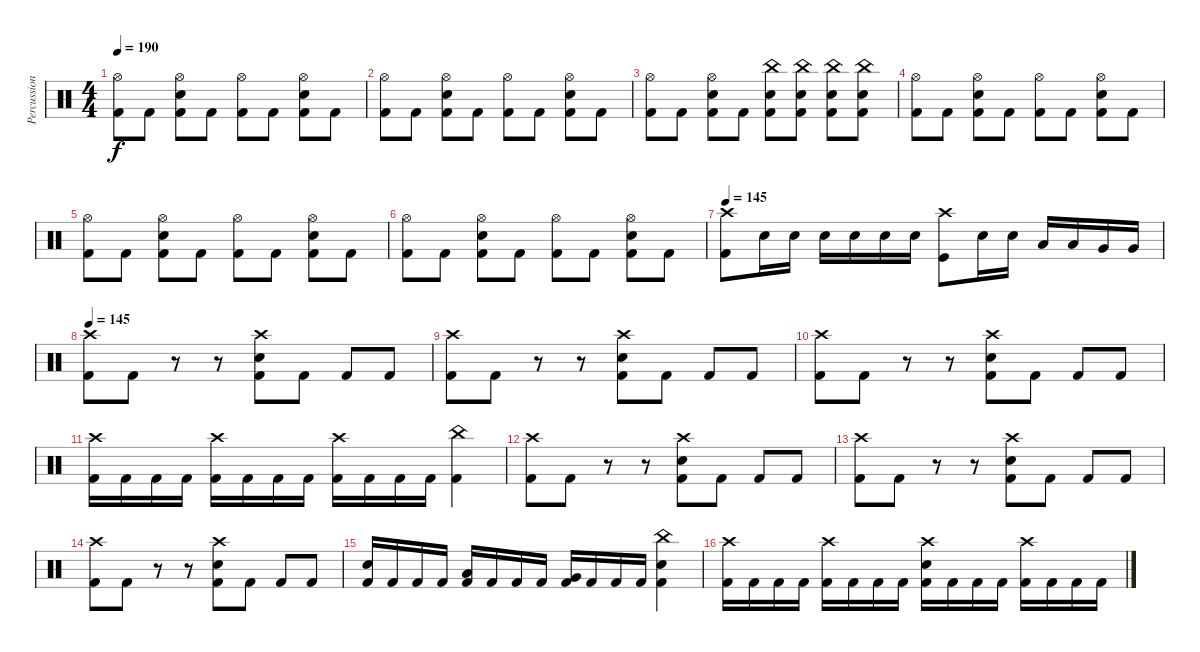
\track ("Percussion" "Percussion") {instrument percussion}
\staff {score}
\articulation defaults
\ts (4 4)
\tempo 190
\clef neutral
\ks c
("Hi-Hat (open)" "Kick (hit) 2").8{dy f} "Kick (hit) 2".8 ("Hi-Hat (open)" "Electric Snare (hit)" "Kick (hit) 2").8 "Kick (hit) 2".8 ("Hi-Hat (open)" "Kick (hit) 2").8 "Kick (hit) 2".8 ("Hi-Hat (open)" "Electric Snare (hit)" "Kick (hit) 2").8 "Kick (hit) 2".8 |
("Hi-Hat (open)" "Kick (hit) 2").8 "Kick (hit) 2".8 ("Hi-Hat (open)" "Electric Snare (hit)" "Kick (hit) 2").8 "Kick (hit) 2".8 ("Hi-Hat (open)" "Kick (hit) 2").8 "Kick (hit) 2".8 ("Hi-Hat (open)" "Electric Snare (hit)" "Kick (hit) 2").8 "Kick (hit) 2".8 |
("Hi-Hat (open)" "Kick (hit) 2").8 "Kick (hit) 2".8 ("Hi-Hat (open)" "Electric Snare (hit)" "Kick (hit) 2").8 "Kick (hit) 2".8 ("China (hit)" "Electric Snare (hit)" "Kick (hit) 2").8 ("China (hit)" "Electric Snare (hit)" "Kick (hit) 2").8 ("China (hit)" "Electric Snare (hit)" "Kick (hit) 2").8 ("China (hit)" "Electric Snare (hit)" "Kick (hit) 2").8 |
("Hi-Hat (open)" "Kick (hit) 2").8 "Kick (hit) 2".8 ("Hi-Hat (open)" "Electric Snare (hit)" "Kick (hit) 2").8 "Kick (hit) 2".8 ("Hi-Hat (open)" "Kick (hit) 2").8 "Kick (hit) 2".8 ("Hi-Hat (open)" "Electric Snare (hit)" "Kick (hit) 2").8 "Kick (hit) 2".8 |
("Hi-Hat (open)" "Kick (hit) 2").8 "Kick (hit) 2".8 ("Hi-Hat (open)" "Electric Snare (hit)" "Kick (hit) 2").8 "Kick (hit) 2".8 ("Hi-Hat (open)" "Kick (hit) 2").8 "Kick (hit) 2".8 ("Hi-Hat (open)" "Electric Snare (hit)" "Kick (hit) 2").8 "Kick (hit) 2".8 |
("Hi-Hat (open)" "Kick (hit) 2").8 "Kick (hit) 2".8 ("Hi-Hat (open)" "Electric Snare (hit)" "Kick (hit) 2").8 "Kick (hit) 2".8 ("Hi-Hat (open)" "Kick (hit) 2").8 "Kick (hit) 2".8 ("Hi-Hat (open)" "Electric Snare (hit)" "Kick (hit) 2").8 "Kick (hit) 2".8 |
\tempo 145
("Crash high (hit)" "Kick (hit) 2").8{volume 13} "Electric Snare (hit)".16 "Electric Snare (hit)".16 "Electric Snare (hit)".16 "Electric Snare (hit)".16 "Electric Snare (hit)".16 "Electric Snare (hit)".16 ("Crash high (hit)" "Kick (hit)").8 "Electric Snare (hit)".16 "Electric Snare (hit)".16 "Low Tom (hit)".16 "Low Tom (hit)".16 "Very Low Tom (hit)".16 "Very Low Tom (hit)".16 |
\tempo 145
("Crash high (hit)" "Kick (hit) 2").8 "Kick (hit) 2".8 r.8 r.8 ("Crash high (hit)" "Electric Snare (hit)" "Kick (hit) 2").8 "Kick (hit) 2".8 "Kick (hit) 2".8 "Kick (hit) 2".8 |
("Crash high (hit)" "Kick (hit) 2").8 "Kick (hit) 2".8 r.8 r.8 ("Crash high (hit)" "Electric Snare (hit)" "Kick (hit) 2").8 "Kick (hit) 2".8 "Kick (hit) 2".8 "Kick (hit) 2".8 |
("Crash high (hit)" "Kick (hit) 2").8 "Kick (hit) 2".8 r.8 r.8 ("Crash high (hit)" "Electric Snare (hit)" "Kick (hit) 2").8 "Kick (hit) 2".8 "Kick (hit) 2".8 "Kick (hit) 2".8 |
("Crash high (hit)" "Kick (hit) 2").16 "Kick (hit) 2".16 "Kick (hit) 2".16 "Kick (hit) 2".16 ("Crash high (hit)" "Kick (hit) 2").16 "Kick (hit) 2".16 "Kick (hit) 2".16 "Kick (hit) 2".16 ("Crash high (hit)" "Kick (hit) 2").16 "Kick (hit) 2".16 "Kick (hit) 2".16 "Kick (hit) 2".16 ("China (hit)" "Kick (hit) 2").4 |
("Crash high (hit)" "Kick (hit) 2").8 "Kick (hit) 2".8 r.8 r.8 ("Crash high (hit)" "Electric Snare (hit)" "Kick (hit) 2").8 "Kick (hit) 2".8 "Kick (hit) 2".8 "Kick (hit) 2".8 |
("Crash high (hit)" "Kick (hit) 2").8 "Kick (hit) 2".8 r.8 r.8 ("Crash high (hit)" "Electric Snare (hit)" "Kick (hit) 2").8 "Kick (hit) 2".8 "Kick (hit) 2".8 "Kick (hit) 2".8 |
("Crash high (hit)" "Kick (hit) 2").8 "Kick (hit) 2".8 r.8 r.8 ("Crash high (hit)" "Electric Snare (hit)" "Kick (hit) 2").8 "Kick (hit) 2".8 "Kick (hit) 2".8 "Kick (hit) 2".8 |
("Electric Snare (hit)" "Kick (hit) 2").16 "Kick (hit) 2".16 "Kick (hit) 2".16 "Kick (hit) 2".16 ("Low Tom (hit)" "Kick (hit) 2").16 "Kick (hit) 2".16 "Kick (hit) 2".16 "Kick (hit) 2".16 ("Very Low Tom (hit)" "Kick (hit) 2").16 "Kick (hit) 2".16 "Kick (hit) 2".16 "Kick (hit) 2".16 ("China (hit)" "Electric Snare (hit)" "Kick (hit) 2").4 |
("Crash high (hit)" "Kick (hit) 2").16 "Kick (hit) 2".16 "Kick (hit) 2".16 "Kick (hit) 2".16 ("Crash high (hit)" "Kick (hit) 2").16 "Kick (hit) 2".16 "Kick (hit) 2".16 "Kick (hit) 2".16 ("Crash high (hit)" "Electric Snare (hit)" "Kick (hit) 2").16 "Kick (hit) 2".16 "Kick (hit) 2".16 "Kick (hit) 2".16 ("Crash high (hit)" "Kick (hit) 2").16 "Kick (hit) 2".16 "Kick (hit) 2".16 "Kick (hit) 2".16
